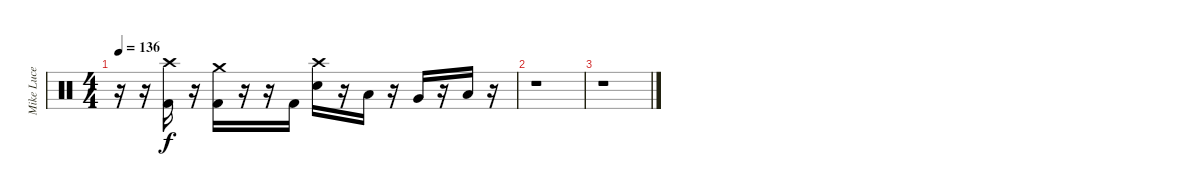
\track ("Mike Luce" "Mike Luce") {instrument percussion}
\staff {score}
\articulation defaults
\ts (4 4)
\tempo 136
\clef neutral
\ks c
r.16{dy f} r.16 ("Crash high (hit)" "Kick (hit) 2").16 r.16 ("Crash medium (hit)" "Kick (hit) 2").16 r.16 r.16 "Kick (hit) 2".16 ("Crash high (hit)" "Electric Snare (hit)").16 r.16 "Low Tom (hit)".16 r.16 "Very Low Tom (hit)".16 r.16 "Low Floor Tom (hit)".16 r.16 |
r.1 |
r.1
